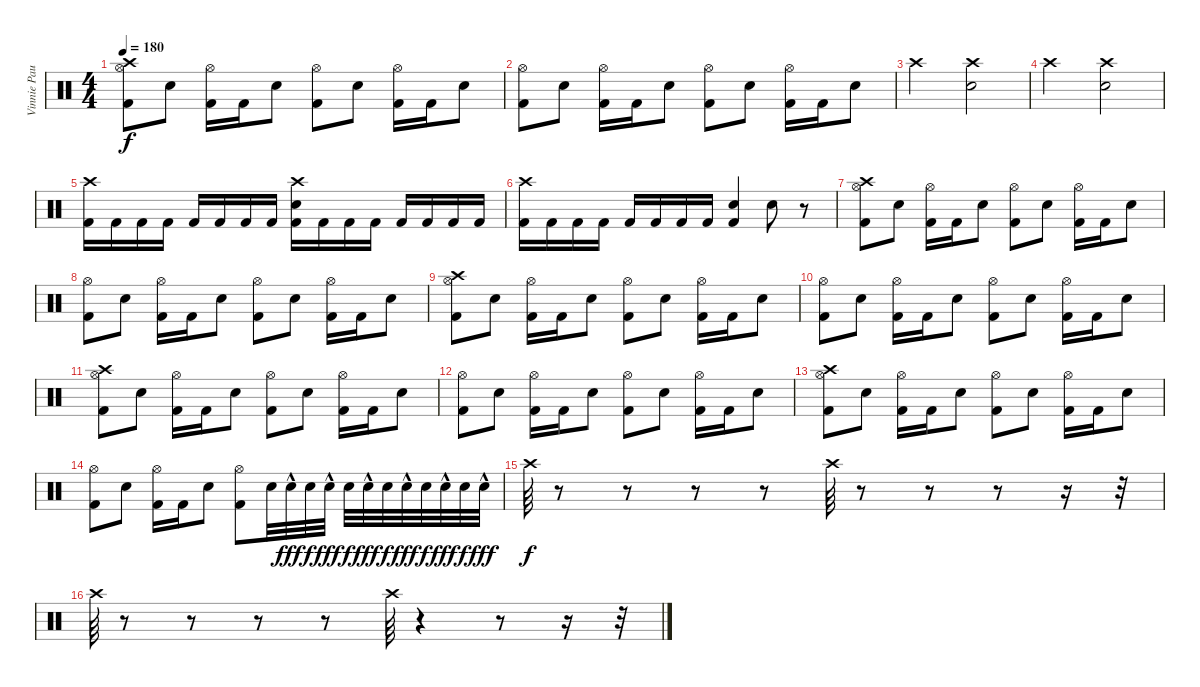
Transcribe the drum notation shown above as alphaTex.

\track ("Vinnie Paul" "Vinnie Pau") {instrument percussion}
\staff {score}
\articulation defaults
\ts (4 4)
\tempo 180
\clef neutral
\ks c
("Hi-Hat (open)" "Crash high (hit)" "Kick (hit) 2").8{dy f} "Snare (hit) 2".8 ("Hi-Hat (open)" "Kick (hit) 2").16 "Kick (hit) 2".16 "Snare (hit) 2".8 ("Hi-Hat (open)" "Kick (hit) 2").8 "Snare (hit) 2".8 ("Hi-Hat (open)" "Kick (hit) 2").16 "Kick (hit) 2".16 "Snare (hit) 2".8 |
("Hi-Hat (open)" "Kick (hit) 2").8 "Snare (hit) 2".8 ("Hi-Hat (open)" "Kick (hit) 2").16 "Kick (hit) 2".16 "Snare (hit) 2".8 ("Hi-Hat (open)" "Kick (hit) 2").8 "Snare (hit) 2".8 ("Hi-Hat (open)" "Kick (hit) 2").16 "Kick (hit) 2".16 "Snare (hit) 2".8 |
"Crash high (hit)".2 ("Crash high (hit)" "Snare (hit) 2").2 |
"Crash high (hit)".2 ("Crash high (hit)" "Snare (hit) 2").2 |
("Crash high (hit)" "Kick (hit) 2").16 "Kick (hit) 2".16 "Kick (hit) 2".16 "Kick (hit) 2".16 "Kick (hit) 2".16 "Kick (hit) 2".16 "Kick (hit) 2".16 "Kick (hit) 2".16 ("Crash high (hit)" "Snare (hit) 2" "Kick (hit) 2").16 "Kick (hit) 2".16 "Kick (hit) 2".16 "Kick (hit) 2".16 "Kick (hit) 2".16 "Kick (hit) 2".16 "Kick (hit) 2".16 "Kick (hit) 2".16 |
("Crash high (hit)" "Kick (hit) 2").16 "Kick (hit) 2".16 "Kick (hit) 2".16 "Kick (hit) 2".16 "Kick (hit) 2".16 "Kick (hit) 2".16 "Kick (hit) 2".16 "Kick (hit) 2".16 ("Snare (hit) 2" "Kick (hit) 2").4 "Snare (hit) 2".8 r.8 |
("Hi-Hat (open)" "Crash high (hit)" "Kick (hit) 2").8 "Snare (hit) 2".8 ("Hi-Hat (open)" "Kick (hit) 2").16 "Kick (hit) 2".16 "Snare (hit) 2".8 ("Hi-Hat (open)" "Kick (hit) 2").8 "Snare (hit) 2".8 ("Hi-Hat (open)" "Kick (hit) 2").16 "Kick (hit) 2".16 "Snare (hit) 2".8 |
("Hi-Hat (open)" "Kick (hit) 2").8 "Snare (hit) 2".8 ("Hi-Hat (open)" "Kick (hit) 2").16 "Kick (hit) 2".16 "Snare (hit) 2".8 ("Hi-Hat (open)" "Kick (hit) 2").8 "Snare (hit) 2".8 ("Hi-Hat (open)" "Kick (hit) 2").16 "Kick (hit) 2".16 "Snare (hit) 2".8 |
("Hi-Hat (open)" "Crash high (hit)" "Kick (hit) 2").8 "Snare (hit) 2".8 ("Hi-Hat (open)" "Kick (hit) 2").16 "Kick (hit) 2".16 "Snare (hit) 2".8 ("Hi-Hat (open)" "Kick (hit) 2").8 "Snare (hit) 2".8 ("Hi-Hat (open)" "Kick (hit) 2").16 "Kick (hit) 2".16 "Snare (hit) 2".8 |
("Hi-Hat (open)" "Kick (hit) 2").8 "Snare (hit) 2".8 ("Hi-Hat (open)" "Kick (hit) 2").16 "Kick (hit) 2".16 "Snare (hit) 2".8 ("Hi-Hat (open)" "Kick (hit) 2").8 "Snare (hit) 2".8 ("Hi-Hat (open)" "Kick (hit) 2").16 "Kick (hit) 2".16 "Snare (hit) 2".8 |
("Hi-Hat (open)" "Crash high (hit)" "Kick (hit) 2").8 "Snare (hit) 2".8 ("Hi-Hat (open)" "Kick (hit) 2").16 "Kick (hit) 2".16 "Snare (hit) 2".8 ("Hi-Hat (open)" "Kick (hit) 2").8 "Snare (hit) 2".8 ("Hi-Hat (open)" "Kick (hit) 2").16 "Kick (hit) 2".16 "Snare (hit) 2".8 |
("Hi-Hat (open)" "Kick (hit) 2").8 "Snare (hit) 2".8 ("Hi-Hat (open)" "Kick (hit) 2").16 "Kick (hit) 2".16 "Snare (hit) 2".8 ("Hi-Hat (open)" "Kick (hit) 2").8 "Snare (hit) 2".8 ("Hi-Hat (open)" "Kick (hit) 2").16 "Kick (hit) 2".16 "Snare (hit) 2".8 |
("Hi-Hat (open)" "Crash high (hit)" "Kick (hit) 2").8 "Snare (hit) 2".8 ("Hi-Hat (open)" "Kick (hit) 2").16 "Kick (hit) 2".16 "Snare (hit) 2".8 ("Hi-Hat (open)" "Kick (hit) 2").8 "Snare (hit) 2".8 ("Hi-Hat (open)" "Kick (hit) 2").16 "Kick (hit) 2".16 "Snare (hit) 2".8 |
("Hi-Hat (open)" "Kick (hit) 2").8 "Snare (hit) 2".8 ("Hi-Hat (open)" "Kick (hit) 2").16 "Kick (hit) 2".16 "Snare (hit) 2".8 ("Hi-Hat (open)" "Kick (hit) 2").8 "Snare (hit) 2".32 "Snare (hit) 2"{hac}.32{dy fff} "Snare (hit) 2".32{dy f} "Snare (hit) 2"{hac}.32{dy fff} "Snare (hit) 2".32{dy f} "Snare (hit) 2"{hac}.32{dy fff} "Snare (hit) 2".32{dy f} "Snare (hit) 2"{hac}.32{dy fff} "Snare (hit) 2".32{dy f} "Snare (hit) 2"{hac}.32{dy fff} "Snare (hit) 2".32{dy f} "Snare (hit) 2"{hac}.32{dy fff} |
"Crash high (hit)".64{dy f} r.8 r.8 r.8 r.8 "Crash high (hit)".64 r.8 r.8 r.8 r.16 r.32 |
"Crash high (hit)".64 r.8 r.8 r.8 r.8 "Crash high (hit)".64 r.4 r.8 r.16 r.32
